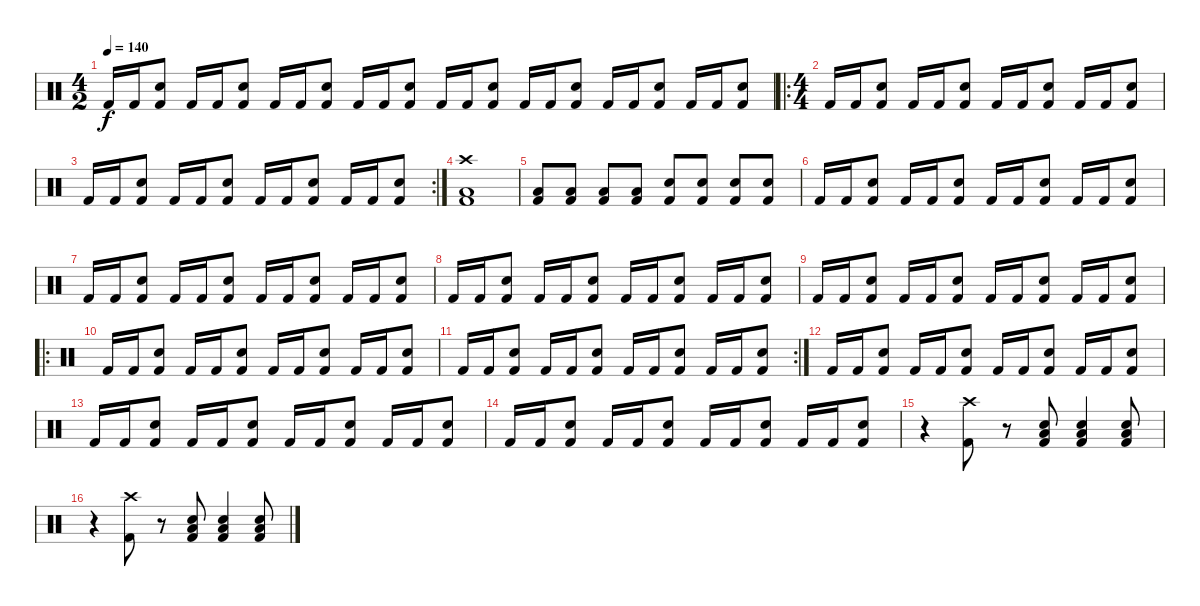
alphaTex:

\track "" {instrument percussion}
\staff {score}
\articulation defaults
\ts (4 2)
\tempo 140
\clef neutral
\ks c "Kick (hit) 2".16{dy f} "Kick (hit) 2".16
("Kick (hit) 2" "Snare (hit) 2").8 "Kick (hit) 2".16 "Kick (hit) 2".16 ("Kick (hit) 2" "Snare (hit) 2").8 "Kick (hit) 2".16 "Kick (hit) 2".16 ("Kick (hit) 2" "Snare (hit) 2").8 "Kick (hit) 2".16 "Kick (hit) 2".16 ("Kick (hit) 2" "Snare (hit) 2").8 "Kick (hit) 2".16 "Kick (hit) 2".16 ("Kick (hit) 2" "Snare (hit) 2").8 "Kick (hit) 2".16 "Kick (hit) 2".16 ("Kick (hit) 2" "Snare (hit) 2").8 "Kick (hit) 2".16 "Kick (hit) 2".16 ("Kick (hit) 2" "Snare (hit) 2").8 "Kick (hit) 2".16 "Kick (hit) 2".16 ("Kick (hit) 2" "Snare (hit) 2").8 |
\ro
\ts (4 4)
"Kick (hit) 2".16 "Kick (hit) 2".16 ("Kick (hit) 2" "Snare (hit) 2").8 "Kick (hit) 2".16 "Kick (hit) 2".16 ("Kick (hit) 2" "Snare (hit) 2").8 "Kick (hit) 2".16 "Kick (hit) 2".16 ("Kick (hit) 2" "Snare (hit) 2").8 "Kick (hit) 2".16 "Kick (hit) 2".16 ("Kick (hit) 2" "Snare (hit) 2").8 |
\rc 2 "Kick (hit) 2".16 "Kick (hit) 2".16
("Kick (hit) 2" "Snare (hit) 2").8 "Kick (hit) 2".16 "Kick (hit) 2".16 ("Kick (hit) 2" "Snare (hit) 2").8 "Kick (hit) 2".16 "Kick (hit) 2".16 ("Kick (hit) 2" "Snare (hit) 2").8 "Kick (hit) 2".16 "Kick (hit) 2".16 ("Kick (hit) 2" "Snare (hit) 2").8 |
("Kick (hit) 2" "Low Tom (hit)" "Crash high (hit)").1 |
("Kick (hit) 2" "Low Tom (hit)").8 ("Kick (hit) 2" "Low Tom (hit)").8 ("Kick (hit) 2" "Low Tom (hit)").8 ("Kick (hit) 2" "Low Tom (hit)").8 ("Kick (hit) 2" "Snare (hit) 2").8 ("Kick (hit) 2" "Snare (hit) 2").8 ("Kick (hit) 2" "Snare (hit) 2").8 ("Kick (hit) 2" "Snare (hit) 2").8 |
"Kick (hit) 2".16 "Kick (hit) 2".16 ("Kick (hit) 2" "Snare (hit) 2").8 "Kick (hit) 2".16 "Kick (hit) 2".16 ("Kick (hit) 2" "Snare (hit) 2").8 "Kick (hit) 2".16 "Kick (hit) 2".16 ("Kick (hit) 2" "Snare (hit) 2").8 "Kick (hit) 2".16 "Kick (hit) 2".16 ("Kick (hit) 2" "Snare (hit) 2").8 |
"Kick (hit) 2".16 "Kick (hit) 2".16 ("Kick (hit) 2" "Snare (hit) 2").8 "Kick (hit) 2".16 "Kick (hit) 2".16 ("Kick (hit) 2" "Snare (hit) 2").8 "Kick (hit) 2".16 "Kick (hit) 2".16 ("Kick (hit) 2" "Snare (hit) 2").8 "Kick (hit) 2".16 "Kick (hit) 2".16 ("Kick (hit) 2" "Snare (hit) 2").8 |
"Kick (hit) 2".16 "Kick (hit) 2".16 ("Kick (hit) 2" "Snare (hit) 2").8 "Kick (hit) 2".16 "Kick (hit) 2".16 ("Kick (hit) 2" "Snare (hit) 2").8 "Kick (hit) 2".16 "Kick (hit) 2".16 ("Kick (hit) 2" "Snare (hit) 2").8 "Kick (hit) 2".16 "Kick (hit) 2".16 ("Kick (hit) 2" "Snare (hit) 2").8 |
"Kick (hit) 2".16 "Kick (hit) 2".16 ("Kick (hit) 2" "Snare (hit) 2").8 "Kick (hit) 2".16 "Kick (hit) 2".16 ("Kick (hit) 2" "Snare (hit) 2").8 "Kick (hit) 2".16 "Kick (hit) 2".16 ("Kick (hit) 2" "Snare (hit) 2").8 "Kick (hit) 2".16 "Kick (hit) 2".16 ("Kick (hit) 2" "Snare (hit) 2").8 |
\ro "Kick (hit) 2".16 "Kick (hit) 2".16
("Kick (hit) 2" "Snare (hit) 2").8 "Kick (hit) 2".16 "Kick (hit) 2".16 ("Kick (hit) 2" "Snare (hit) 2").8 "Kick (hit) 2".16 "Kick (hit) 2".16 ("Kick (hit) 2" "Snare (hit) 2").8 "Kick (hit) 2".16 "Kick (hit) 2".16 ("Kick (hit) 2" "Snare (hit) 2").8 |
\rc 2 "Kick (hit) 2".16 "Kick (hit) 2".16
("Kick (hit) 2" "Snare (hit) 2").8 "Kick (hit) 2".16 "Kick (hit) 2".16 ("Kick (hit) 2" "Snare (hit) 2").8 "Kick (hit) 2".16 "Kick (hit) 2".16 ("Kick (hit) 2" "Snare (hit) 2").8 "Kick (hit) 2".16 "Kick (hit) 2".16 ("Kick (hit) 2" "Snare (hit) 2").8 |
"Kick (hit) 2".16 "Kick (hit) 2".16 ("Kick (hit) 2" "Snare (hit) 2").8 "Kick (hit) 2".16 "Kick (hit) 2".16 ("Kick (hit) 2" "Snare (hit) 2").8 "Kick (hit) 2".16 "Kick (hit) 2".16 ("Kick (hit) 2" "Snare (hit) 2").8 "Kick (hit) 2".16 "Kick (hit) 2".16 ("Kick (hit) 2" "Snare (hit) 2").8 |
"Kick (hit) 2".16 "Kick (hit) 2".16 ("Kick (hit) 2" "Snare (hit) 2").8 "Kick (hit) 2".16 "Kick (hit) 2".16 ("Kick (hit) 2" "Snare (hit) 2").8 "Kick (hit) 2".16 "Kick (hit) 2".16 ("Kick (hit) 2" "Snare (hit) 2").8 "Kick (hit) 2".16 "Kick (hit) 2".16 ("Kick (hit) 2" "Snare (hit) 2").8 |
"Kick (hit) 2".16 "Kick (hit) 2".16 ("Kick (hit) 2" "Snare (hit) 2").8 "Kick (hit) 2".16 "Kick (hit) 2".16 ("Kick (hit) 2" "Snare (hit) 2").8 "Kick (hit) 2".16 "Kick (hit) 2".16 ("Kick (hit) 2" "Snare (hit) 2").8 "Kick (hit) 2".16 "Kick (hit) 2".16 ("Kick (hit) 2" "Snare (hit) 2").8 |
r.4 ("Kick (hit) 2" "Crash high (hit)").8 r.8 ("Kick (hit) 2" "Low Tom (hit)" "Snare (hit) 2").8 ("Kick (hit) 2" "Low Tom (hit)" "Snare (hit) 2").4 ("Kick (hit) 2" "Low Tom (hit)" "Snare (hit) 2").8 |
r.4 ("Kick (hit) 2" "Crash high (hit)").8 r.8 ("Kick (hit) 2" "Low Tom (hit)" "Snare (hit) 2").8 ("Kick (hit) 2" "Low Tom (hit)" "Snare (hit) 2").4 ("Kick (hit) 2" "Low Tom (hit)" "Snare (hit) 2").8
